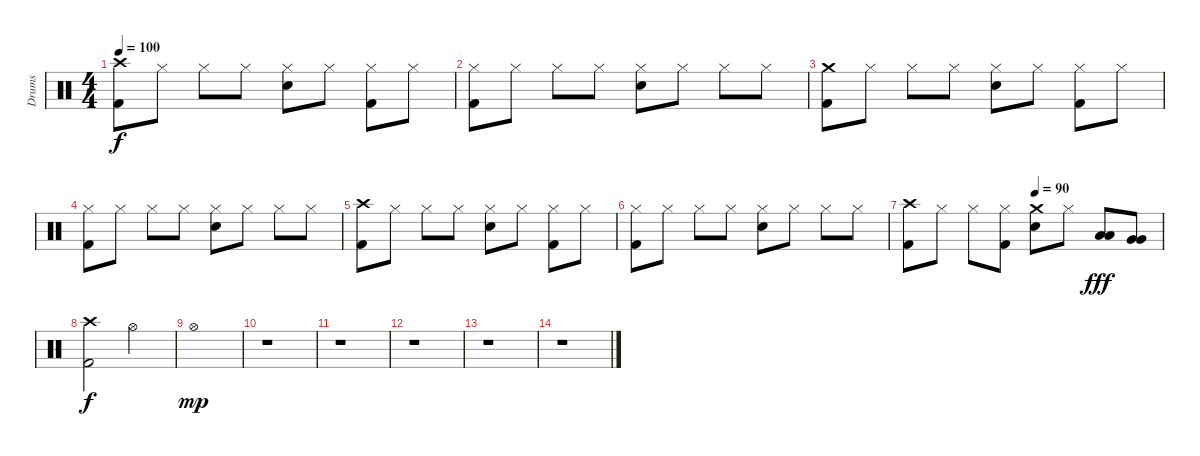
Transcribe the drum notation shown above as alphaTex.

\track ("Drums" "Drums") {instrument percussion}
\staff {score}
\articulation defaults
\ts (4 4)
\tempo 100
\clef neutral
\ks c
("Kick (hit) 2" "Crash high (hit)").8{dy f} "Hi-Hat (closed)".8 "Hi-Hat (closed)".8 "Hi-Hat (closed)".8 ("Hi-Hat (closed)" "Snare (hit) 2").8 "Hi-Hat (closed)".8 ("Kick (hit) 2" "Hi-Hat (closed)").8 "Hi-Hat (closed)".8 |
("Kick (hit) 2" "Hi-Hat (closed)").8 "Hi-Hat (closed)".8 "Hi-Hat (closed)".8 "Hi-Hat (closed)".8 ("Hi-Hat (closed)" "Snare (hit) 2").8 "Hi-Hat (closed)".8 "Hi-Hat (closed)".8 "Hi-Hat (closed)".8 |
("Kick (hit) 2" "Crash medium (hit)").8 "Hi-Hat (closed)".8 "Hi-Hat (closed)".8 "Hi-Hat (closed)".8 ("Hi-Hat (closed)" "Snare (hit) 2").8 "Hi-Hat (closed)".8 ("Kick (hit) 2" "Hi-Hat (closed)").8 "Hi-Hat (closed)".8 |
("Kick (hit) 2" "Hi-Hat (closed)").8 "Hi-Hat (closed)".8 "Hi-Hat (closed)".8 "Hi-Hat (closed)".8 ("Hi-Hat (closed)" "Snare (hit) 2").8 "Hi-Hat (closed)".8 "Hi-Hat (closed)".8 "Hi-Hat (closed)".8 |
("Kick (hit) 2" "Crash high (hit)").8 "Hi-Hat (closed)".8 "Hi-Hat (closed)".8 "Hi-Hat (closed)".8 ("Hi-Hat (closed)" "Snare (hit) 2").8 "Hi-Hat (closed)".8 ("Kick (hit) 2" "Hi-Hat (closed)").8 "Hi-Hat (closed)".8 |
("Kick (hit) 2" "Hi-Hat (closed)").8 "Hi-Hat (closed)".8 "Hi-Hat (closed)".8 "Hi-Hat (closed)".8 ("Hi-Hat (closed)" "Snare (hit) 2").8 "Hi-Hat (closed)".8 "Hi-Hat (closed)".8 "Hi-Hat (closed)".8 |
\tempo (90 0.5)
("Kick (hit) 2" "Crash high (hit)").8 "Hi-Hat (closed)".8 "Hi-Hat (closed)".8 ("Kick (hit) 2" "Hi-Hat (closed)").8 ("Crash medium (hit)" "Snare (hit) 2").8 "Hi-Hat (closed)".8 ("Low Tom (hit)" "Low Tom (hit)").8{dy fff} ("Very Low Tom (hit)" "Very Low Tom (hit)").8 |
("Kick (hit) 2" "Crash high (hit)").2{dy f} "Hi-Hat (open)".2 |
"Hi-Hat (open)".1{dy mp} |
r.1 |
r.1 |
r.1 |
r.1 |
r.1
